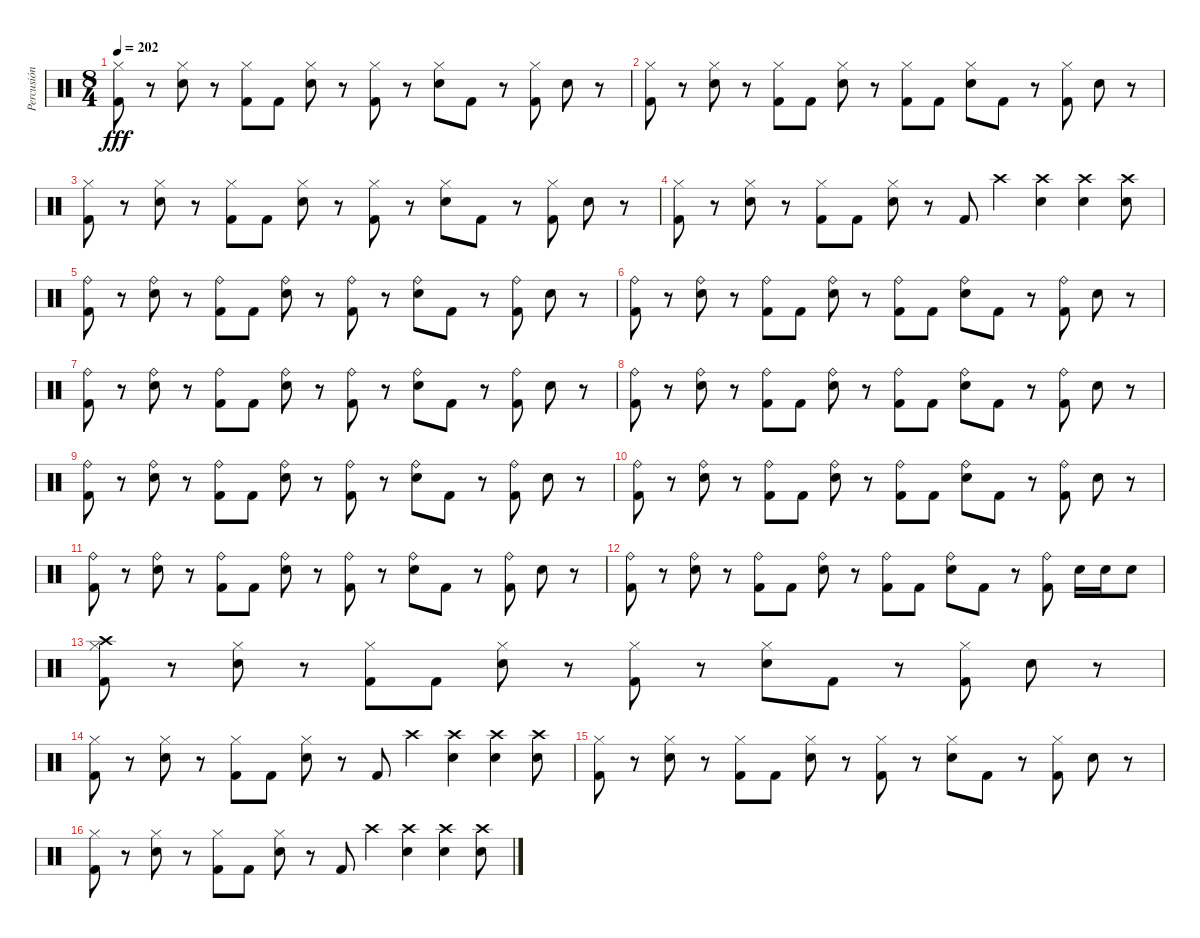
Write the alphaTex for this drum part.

\track ("Percusión (Santi Doré)" "Percusión ") {instrument percussion}
\staff {score}
\articulation defaults
\ts (8 4)
\tempo 202
\clef neutral
\ks c
("Hi-Hat (closed)" "Kick (hit) 2").8{dy fff} r.8 ("Hi-Hat (closed)" "Electric Snare (hit)").8 r.8 ("Hi-Hat (closed)" "Kick (hit) 2").8 "Kick (hit) 2".8 ("Hi-Hat (closed)" "Electric Snare (hit)").8 r.8 ("Hi-Hat (closed)" "Kick (hit) 2").8 r.8 ("Hi-Hat (closed)" "Electric Snare (hit)").8 "Kick (hit) 2".8 r.8 ("Hi-Hat (closed)" "Kick (hit) 2").8 "Electric Snare (hit)".8 r.8 |
("Hi-Hat (closed)" "Kick (hit) 2").8 r.8 ("Hi-Hat (closed)" "Electric Snare (hit)").8 r.8 ("Hi-Hat (closed)" "Kick (hit) 2").8 "Kick (hit) 2".8 ("Hi-Hat (closed)" "Electric Snare (hit)").8 r.8 ("Hi-Hat (closed)" "Kick (hit) 2").8 "Kick (hit) 2".8 ("Hi-Hat (closed)" "Electric Snare (hit)").8 "Kick (hit) 2".8 r.8 ("Hi-Hat (closed)" "Kick (hit) 2").8 "Electric Snare (hit)".8 r.8 |
("Hi-Hat (closed)" "Kick (hit) 2").8 r.8 ("Hi-Hat (closed)" "Electric Snare (hit)").8 r.8 ("Hi-Hat (closed)" "Kick (hit) 2").8 "Kick (hit) 2".8 ("Hi-Hat (closed)" "Electric Snare (hit)").8 r.8 ("Hi-Hat (closed)" "Kick (hit) 2").8 r.8 ("Hi-Hat (closed)" "Electric Snare (hit)").8 "Kick (hit) 2".8 r.8 ("Hi-Hat (closed)" "Kick (hit) 2").8 "Electric Snare (hit)".8 r.8 |
("Hi-Hat (closed)" "Kick (hit) 2").8 r.8 ("Hi-Hat (closed)" "Electric Snare (hit)").8 r.8 ("Hi-Hat (closed)" "Kick (hit) 2").8 "Kick (hit) 2".8 ("Hi-Hat (closed)" "Electric Snare (hit)").8 r.8 "Kick (hit) 2".8 "Crash high (hit)".4 ("Crash high (hit)" "Electric Snare (hit)").4 ("Crash high (hit)" "Electric Snare (hit)").4 ("Crash high (hit)" "Electric Snare (hit)").8 |
("Ride (bell)" "Kick (hit) 2").8 r.8 ("Ride (bell)" "Electric Snare (hit)").8 r.8 ("Ride (bell)" "Kick (hit) 2").8 "Kick (hit) 2".8 ("Ride (bell)" "Electric Snare (hit)").8 r.8 ("Ride (bell)" "Kick (hit) 2").8 r.8 ("Ride (bell)" "Electric Snare (hit)").8 "Kick (hit) 2".8 r.8 ("Ride (bell)" "Kick (hit) 2").8 "Electric Snare (hit)".8 r.8 |
("Ride (bell)" "Kick (hit) 2").8 r.8 ("Ride (bell)" "Electric Snare (hit)").8 r.8 ("Ride (bell)" "Kick (hit) 2").8 "Kick (hit) 2".8 ("Ride (bell)" "Electric Snare (hit)").8 r.8 ("Ride (bell)" "Kick (hit) 2").8 "Kick (hit) 2".8 ("Ride (bell)" "Electric Snare (hit)").8 "Kick (hit) 2".8 r.8 ("Ride (bell)" "Kick (hit) 2").8 "Electric Snare (hit)".8 r.8 |
("Ride (bell)" "Kick (hit) 2").8 r.8 ("Ride (bell)" "Electric Snare (hit)").8 r.8 ("Ride (bell)" "Kick (hit) 2").8 "Kick (hit) 2".8 ("Ride (bell)" "Electric Snare (hit)").8 r.8 ("Ride (bell)" "Kick (hit) 2").8 r.8 ("Ride (bell)" "Electric Snare (hit)").8 "Kick (hit) 2".8 r.8 ("Ride (bell)" "Kick (hit) 2").8 "Electric Snare (hit)".8 r.8 |
("Ride (bell)" "Kick (hit) 2").8 r.8 ("Ride (bell)" "Electric Snare (hit)").8 r.8 ("Ride (bell)" "Kick (hit) 2").8 "Kick (hit) 2".8 ("Ride (bell)" "Electric Snare (hit)").8 r.8 ("Ride (bell)" "Kick (hit) 2").8 "Kick (hit) 2".8 ("Ride (bell)" "Electric Snare (hit)").8 "Kick (hit) 2".8 r.8 ("Ride (bell)" "Kick (hit) 2").8 "Electric Snare (hit)".8 r.8 |
("Ride (bell)" "Kick (hit) 2").8 r.8 ("Ride (bell)" "Electric Snare (hit)").8 r.8 ("Ride (bell)" "Kick (hit) 2").8 "Kick (hit) 2".8 ("Ride (bell)" "Electric Snare (hit)").8 r.8 ("Ride (bell)" "Kick (hit) 2").8 r.8 ("Ride (bell)" "Electric Snare (hit)").8 "Kick (hit) 2".8 r.8 ("Ride (bell)" "Kick (hit) 2").8 "Electric Snare (hit)".8 r.8 |
("Ride (bell)" "Kick (hit) 2").8 r.8 ("Ride (bell)" "Electric Snare (hit)").8 r.8 ("Ride (bell)" "Kick (hit) 2").8 "Kick (hit) 2".8 ("Ride (bell)" "Electric Snare (hit)").8 r.8 ("Ride (bell)" "Kick (hit) 2").8 "Kick (hit) 2".8 ("Ride (bell)" "Electric Snare (hit)").8 "Kick (hit) 2".8 r.8 ("Ride (bell)" "Kick (hit) 2").8 "Electric Snare (hit)".8 r.8 |
("Ride (bell)" "Kick (hit) 2").8 r.8 ("Ride (bell)" "Electric Snare (hit)").8 r.8 ("Ride (bell)" "Kick (hit) 2").8 "Kick (hit) 2".8 ("Ride (bell)" "Electric Snare (hit)").8 r.8 ("Ride (bell)" "Kick (hit) 2").8 r.8 ("Ride (bell)" "Electric Snare (hit)").8 "Kick (hit) 2".8 r.8 ("Ride (bell)" "Kick (hit) 2").8 "Electric Snare (hit)".8 r.8 |
("Ride (bell)" "Kick (hit) 2").8 r.8 ("Ride (bell)" "Electric Snare (hit)").8 r.8 ("Ride (bell)" "Kick (hit) 2").8 "Kick (hit) 2".8 ("Ride (bell)" "Electric Snare (hit)").8 r.8 ("Ride (bell)" "Kick (hit) 2").8 "Kick (hit) 2".8 ("Ride (bell)" "Electric Snare (hit)").8 "Kick (hit) 2".8 r.8 ("Ride (bell)" "Kick (hit) 2").8 "Electric Snare (hit)".16 "Electric Snare (hit)".16 "Electric Snare (hit)".8 |
("Crash high (hit)" "Hi-Hat (closed)" "Kick (hit) 2").8 r.8 ("Hi-Hat (closed)" "Electric Snare (hit)").8 r.8 ("Hi-Hat (closed)" "Kick (hit) 2").8 "Kick (hit) 2".8 ("Hi-Hat (closed)" "Electric Snare (hit)").8 r.8 ("Hi-Hat (closed)" "Kick (hit) 2").8 r.8 ("Hi-Hat (closed)" "Electric Snare (hit)").8 "Kick (hit) 2".8 r.8 ("Hi-Hat (closed)" "Kick (hit) 2").8 "Electric Snare (hit)".8 r.8 |
("Hi-Hat (closed)" "Kick (hit) 2").8 r.8 ("Hi-Hat (closed)" "Electric Snare (hit)").8 r.8 ("Hi-Hat (closed)" "Kick (hit) 2").8 "Kick (hit) 2".8 ("Hi-Hat (closed)" "Electric Snare (hit)").8 r.8 "Kick (hit) 2".8 "Crash high (hit)".4 ("Crash high (hit)" "Electric Snare (hit)").4 ("Crash high (hit)" "Electric Snare (hit)").4 ("Crash high (hit)" "Electric Snare (hit)").8 |
("Hi-Hat (closed)" "Kick (hit) 2").8 r.8 ("Hi-Hat (closed)" "Electric Snare (hit)").8 r.8 ("Hi-Hat (closed)" "Kick (hit) 2").8 "Kick (hit) 2".8 ("Hi-Hat (closed)" "Electric Snare (hit)").8 r.8 ("Hi-Hat (closed)" "Kick (hit) 2").8 r.8 ("Hi-Hat (closed)" "Electric Snare (hit)").8 "Kick (hit) 2".8 r.8 ("Hi-Hat (closed)" "Kick (hit) 2").8 "Electric Snare (hit)".8 r.8 |
("Hi-Hat (closed)" "Kick (hit) 2").8 r.8 ("Hi-Hat (closed)" "Electric Snare (hit)").8 r.8 ("Hi-Hat (closed)" "Kick (hit) 2").8 "Kick (hit) 2".8 ("Hi-Hat (closed)" "Electric Snare (hit)").8 r.8 "Kick (hit) 2".8 "Crash high (hit)".4 ("Crash high (hit)" "Electric Snare (hit)").4 ("Crash high (hit)" "Electric Snare (hit)").4 ("Crash high (hit)" "Electric Snare (hit)").8
